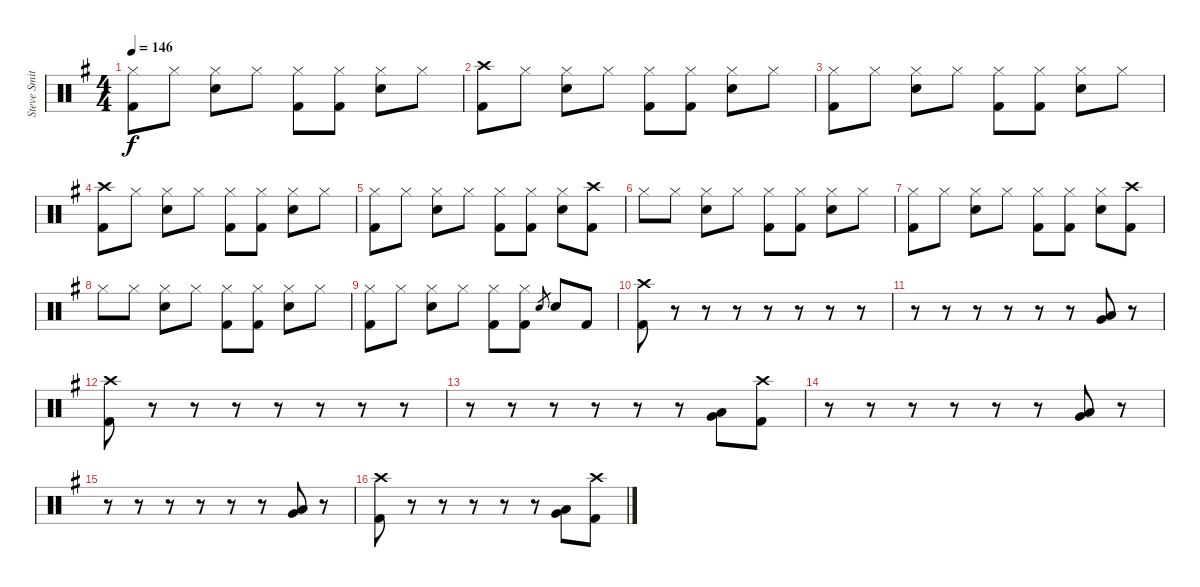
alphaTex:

\track ("Steve Smith" "Steve Smit") {instrument percussion}
\staff {score}
\articulation defaults
\ts (4 4)
\tempo 146
\clef neutral
\ks g
("Hi-Hat (closed)" "Kick (hit) 2").8{dy f} "Hi-Hat (closed)".8 ("Hi-Hat (closed)" "Snare (hit) 2").8 "Hi-Hat (closed)".8 ("Hi-Hat (closed)" "Kick (hit) 2").8 ("Hi-Hat (closed)" "Kick (hit) 2").8 ("Hi-Hat (closed)" "Snare (hit) 2").8 "Hi-Hat (closed)".8 |
("Crash high (hit)" "Kick (hit) 2").8 "Hi-Hat (closed)".8 ("Hi-Hat (closed)" "Snare (hit) 2").8 "Hi-Hat (closed)".8 ("Hi-Hat (closed)" "Kick (hit) 2").8 ("Hi-Hat (closed)" "Kick (hit) 2").8 ("Hi-Hat (closed)" "Snare (hit) 2").8 "Hi-Hat (closed)".8 |
("Hi-Hat (closed)" "Kick (hit) 2").8 "Hi-Hat (closed)".8 ("Hi-Hat (closed)" "Snare (hit) 2").8 "Hi-Hat (closed)".8 ("Hi-Hat (closed)" "Kick (hit) 2").8 ("Hi-Hat (closed)" "Kick (hit) 2").8 ("Hi-Hat (closed)" "Snare (hit) 2").8 "Hi-Hat (closed)".8 |
("Crash high (hit)" "Kick (hit) 2").8 "Hi-Hat (closed)".8 ("Hi-Hat (closed)" "Snare (hit) 2").8 "Hi-Hat (closed)".8 ("Hi-Hat (closed)" "Kick (hit) 2").8 ("Hi-Hat (closed)" "Kick (hit) 2").8 ("Hi-Hat (closed)" "Snare (hit) 2").8 "Hi-Hat (closed)".8 |
("Hi-Hat (closed)" "Kick (hit) 2").8 "Hi-Hat (closed)".8 ("Hi-Hat (closed)" "Snare (hit) 2").8 "Hi-Hat (closed)".8 ("Hi-Hat (closed)" "Kick (hit) 2").8 ("Hi-Hat (closed)" "Kick (hit) 2").8 ("Hi-Hat (closed)" "Snare (hit) 2").8 ("Crash high (hit)" "Kick (hit) 2").8 |
"Hi-Hat (closed)".8 "Hi-Hat (closed)".8 ("Hi-Hat (closed)" "Snare (hit) 2").8 "Hi-Hat (closed)".8 ("Hi-Hat (closed)" "Kick (hit) 2").8 ("Hi-Hat (closed)" "Kick (hit) 2").8 ("Hi-Hat (closed)" "Snare (hit) 2").8 "Hi-Hat (closed)".8 |
("Hi-Hat (closed)" "Kick (hit) 2").8 "Hi-Hat (closed)".8 ("Hi-Hat (closed)" "Snare (hit) 2").8 "Hi-Hat (closed)".8 ("Hi-Hat (closed)" "Kick (hit) 2").8 ("Hi-Hat (closed)" "Kick (hit) 2").8 ("Hi-Hat (closed)" "Snare (hit) 2").8 ("Crash high (hit)" "Kick (hit) 2").8 |
"Hi-Hat (closed)".8 "Hi-Hat (closed)".8 ("Hi-Hat (closed)" "Snare (hit) 2").8 "Hi-Hat (closed)".8 ("Hi-Hat (closed)" "Kick (hit) 2").8 ("Hi-Hat (closed)" "Kick (hit) 2").8 ("Hi-Hat (closed)" "Snare (hit) 2").8 "Hi-Hat (closed)".8 |
("Hi-Hat (closed)" "Kick (hit) 2").8 "Hi-Hat (closed)".8 ("Hi-Hat (closed)" "Snare (hit) 2").8 "Hi-Hat (closed)".8 ("Hi-Hat (closed)" "Kick (hit) 2").8 ("Hi-Hat (closed)" "Kick (hit) 2").8 "Snare (hit) 2".8{gr} "Snare (hit) 2".8 "Kick (hit) 2".8 |
("Crash high (hit)" "Kick (hit) 2").8 r.8 r.8 r.8 r.8 r.8 r.8 r.8 |
r.8 r.8 r.8 r.8 r.8 r.8 ("Very Low Tom (hit)" "Low Tom (hit)").8 r.8 |
("Crash high (hit)" "Kick (hit) 2").8 r.8 r.8 r.8 r.8 r.8 r.8 r.8 |
r.8 r.8 r.8 r.8 r.8 r.8 ("Very Low Tom (hit)" "Low Tom (hit)").8 ("Crash high (hit)" "Kick (hit) 2").8 |
r.8 r.8 r.8 r.8 r.8 r.8 ("Very Low Tom (hit)" "Low Tom (hit)").8 r.8 |
r.8 r.8 r.8 r.8 r.8 r.8 ("Very Low Tom (hit)" "Low Tom (hit)").8 r.8 |
("Crash high (hit)" "Kick (hit) 2").8 r.8 r.8 r.8 r.8 r.8 ("Very Low Tom (hit)" "Low Tom (hit)").8 ("Crash high (hit)" "Kick (hit) 2").8
